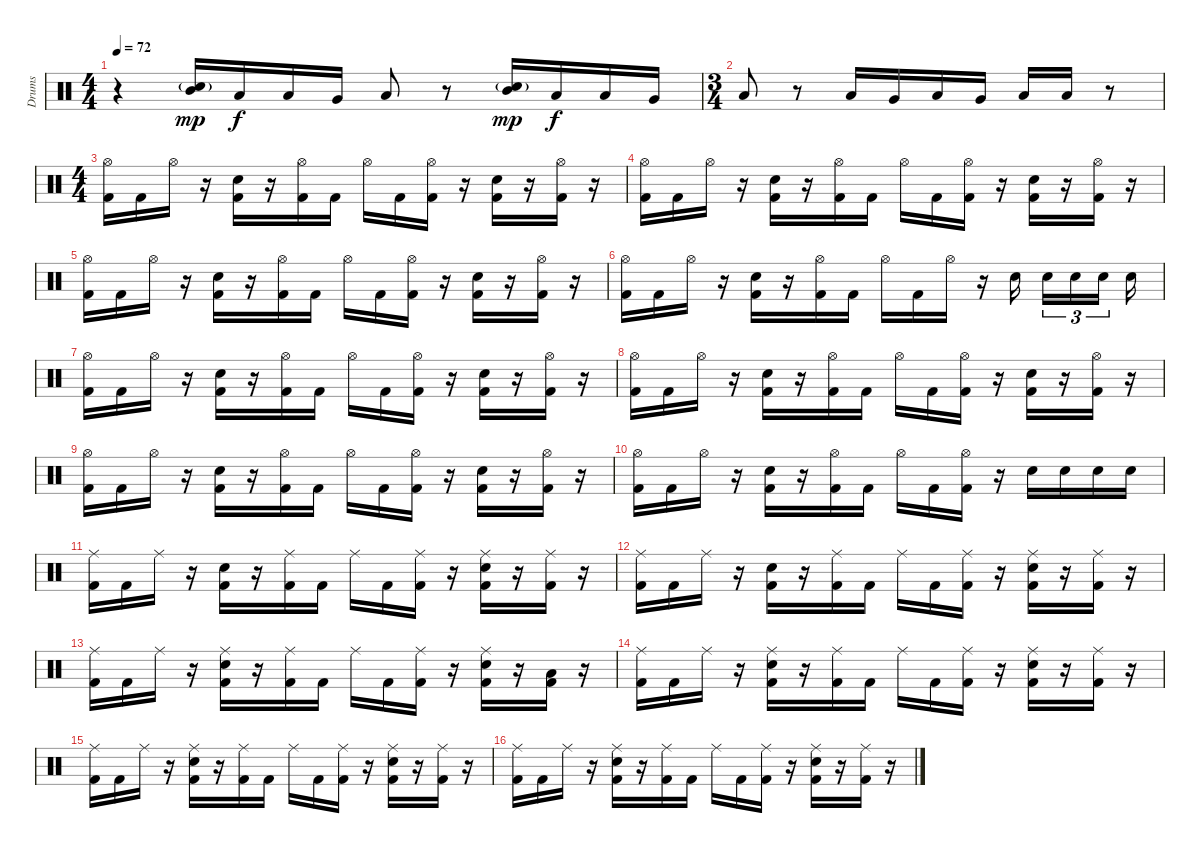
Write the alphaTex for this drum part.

\track ("Drums" "Drums") {instrument percussion}
\staff {score}
\articulation defaults
\ts (4 4)
\tempo 72
\clef neutral
\ks c
r.4{dy f} ("Snare (hit) 2"{g} "Mid Tom (hit)").16{dy mp} "Low Tom (hit)".16{dy f} "Low Tom (hit)".16 "Very Low Tom (hit)".16 "Low Floor Tom (hit)".8 r.8 ("Snare (hit) 2"{g} "Mid Tom (hit)").16{dy mp} "Low Tom (hit)".16{dy f} "Low Tom (hit)".16 "Very Low Tom (hit)".16 |
\ts (3 4)
"Low Floor Tom (hit)".8 r.8 "Low Floor Tom (hit)".16 "Very Low Tom (hit)".16 "Low Floor Tom (hit)".16 "Very Low Tom (hit)".16 "Low Floor Tom (hit)".16 "Low Floor Tom (hit)".16 r.8 |
\ts (4 4)
("Hi-Hat (open)" "Kick (hit) 2").16 "Kick (hit) 2".16 "Hi-Hat (open)".16 r.16 ("Snare (hit) 2" "Kick (hit) 2").16 r.16 ("Hi-Hat (open)" "Kick (hit) 2").16 "Kick (hit) 2".16 "Hi-Hat (open)".16 "Kick (hit) 2".16 ("Hi-Hat (open)" "Kick (hit) 2").16 r.16 ("Snare (hit) 2" "Kick (hit) 2").16 r.16 ("Hi-Hat (open)" "Kick (hit) 2").16 r.16 |
("Hi-Hat (open)" "Kick (hit) 2").16 "Kick (hit) 2".16 "Hi-Hat (open)".16 r.16 ("Snare (hit) 2" "Kick (hit) 2").16 r.16 ("Hi-Hat (open)" "Kick (hit) 2").16 "Kick (hit) 2".16 "Hi-Hat (open)".16 "Kick (hit) 2".16 ("Hi-Hat (open)" "Kick (hit) 2").16 r.16 ("Snare (hit) 2" "Kick (hit) 2").16 r.16 ("Hi-Hat (open)" "Kick (hit) 2").16 r.16 |
("Hi-Hat (open)" "Kick (hit) 2").16 "Kick (hit) 2".16 "Hi-Hat (open)".16 r.16 ("Snare (hit) 2" "Kick (hit) 2").16 r.16 ("Hi-Hat (open)" "Kick (hit) 2").16 "Kick (hit) 2".16 "Hi-Hat (open)".16 "Kick (hit) 2".16 ("Hi-Hat (open)" "Kick (hit) 2").16 r.16 ("Snare (hit) 2" "Kick (hit) 2").16 r.16 ("Hi-Hat (open)" "Kick (hit) 2").16 r.16 |
("Hi-Hat (open)" "Kick (hit) 2").16 "Kick (hit) 2".16 "Hi-Hat (open)".16 r.16 ("Snare (hit) 2" "Kick (hit) 2").16 r.16 ("Hi-Hat (open)" "Kick (hit) 2").16 "Kick (hit) 2".16 "Hi-Hat (open)".16 "Kick (hit) 2".16 "Hi-Hat (open)".16 r.16 "Snare (hit) 2".16{beam splitsecondary} "Snare (hit) 2".16{tu (3 2)} "Snare (hit) 2".16{tu (3 2)} "Snare (hit) 2".16{tu (3 2) beam splitsecondary} "Snare (hit) 2".16 |
("Hi-Hat (open)" "Kick (hit) 2").16 "Kick (hit) 2".16 "Hi-Hat (open)".16 r.16 ("Snare (hit) 2" "Kick (hit) 2").16 r.16 ("Hi-Hat (open)" "Kick (hit) 2").16 "Kick (hit) 2".16 "Hi-Hat (open)".16 "Kick (hit) 2".16 ("Hi-Hat (open)" "Kick (hit) 2").16 r.16 ("Snare (hit) 2" "Kick (hit) 2").16 r.16 ("Hi-Hat (open)" "Kick (hit) 2").16 r.16 |
("Hi-Hat (open)" "Kick (hit) 2").16 "Kick (hit) 2".16 "Hi-Hat (open)".16 r.16 ("Snare (hit) 2" "Kick (hit) 2").16 r.16 ("Hi-Hat (open)" "Kick (hit) 2").16 "Kick (hit) 2".16 "Hi-Hat (open)".16 "Kick (hit) 2".16 ("Hi-Hat (open)" "Kick (hit) 2").16 r.16 ("Snare (hit) 2" "Kick (hit) 2").16 r.16 ("Hi-Hat (open)" "Kick (hit) 2").16 r.16 |
("Hi-Hat (open)" "Kick (hit) 2").16 "Kick (hit) 2".16 "Hi-Hat (open)".16 r.16 ("Snare (hit) 2" "Kick (hit) 2").16 r.16 ("Hi-Hat (open)" "Kick (hit) 2").16 "Kick (hit) 2".16 "Hi-Hat (open)".16 "Kick (hit) 2".16 ("Hi-Hat (open)" "Kick (hit) 2").16 r.16 ("Snare (hit) 2" "Kick (hit) 2").16 r.16 ("Hi-Hat (open)" "Kick (hit) 2").16 r.16 |
("Hi-Hat (open)" "Kick (hit) 2").16 "Kick (hit) 2".16 "Hi-Hat (open)".16 r.16 ("Snare (hit) 2" "Kick (hit) 2").16 r.16 ("Hi-Hat (open)" "Kick (hit) 2").16 "Kick (hit) 2".16 "Hi-Hat (open)".16 "Kick (hit) 2".16 ("Hi-Hat (open)" "Kick (hit) 2").16 r.16 "Electric Snare (hit)".16 "Electric Snare (hit)".16 "Electric Snare (hit)".16 "Electric Snare (hit)".16 |
("Ride (middle)" "Kick (hit) 2").16 "Kick (hit) 2".16 "Ride (middle)".16 r.16 ("Snare (hit) 2" "Kick (hit) 2").16 r.16 ("Ride (middle)" "Kick (hit) 2").16 "Kick (hit) 2".16 "Ride (middle)".16 "Kick (hit) 2".16 ("Ride (middle)" "Kick (hit) 2").16 r.16 ("Ride (middle)" "Snare (hit) 2" "Kick (hit) 2").16 r.16 ("Ride (middle)" "Kick (hit) 2").16 r.16 |
("Ride (middle)" "Kick (hit) 2").16 "Kick (hit) 2".16 "Ride (middle)".16 r.16 ("Snare (hit) 2" "Kick (hit) 2").16 r.16 ("Ride (middle)" "Kick (hit) 2").16 "Kick (hit) 2".16 "Ride (middle)".16 "Kick (hit) 2".16 ("Ride (middle)" "Kick (hit) 2").16 r.16 ("Ride (middle)" "Snare (hit) 2" "Kick (hit) 2").16 r.16 ("Ride (middle)" "Kick (hit) 2").16 r.16 |
("Ride (middle)" "Kick (hit) 2").16 "Kick (hit) 2".16 "Ride (middle)".16 r.16 ("Ride (middle)" "Snare (hit) 2" "Kick (hit) 2").16 r.16 ("Ride (middle)" "Kick (hit) 2").16 "Kick (hit) 2".16 "Ride (middle)".16 "Kick (hit) 2".16 ("Ride (middle)" "Kick (hit) 2").16 r.16 ("Ride (middle)" "Snare (hit) 2" "Kick (hit) 2").16 r.16 ("Low Floor Tom (hit)" "Kick (hit) 2").16 r.16 |
("Ride (middle)" "Kick (hit) 2").16 "Kick (hit) 2".16 "Ride (middle)".16 r.16 ("Ride (middle)" "Snare (hit) 2" "Kick (hit) 2").16 r.16 ("Ride (middle)" "Kick (hit) 2").16 "Kick (hit) 2".16 "Ride (middle)".16 "Kick (hit) 2".16 ("Ride (middle)" "Kick (hit) 2").16 r.16 ("Ride (middle)" "Snare (hit) 2" "Kick (hit) 2").16 r.16 ("Ride (middle)" "Kick (hit) 2").16 r.16 |
("Ride (middle)" "Kick (hit) 2").16 "Kick (hit) 2".16 "Ride (middle)".16 r.16 ("Ride (middle)" "Snare (hit) 2" "Kick (hit) 2").16 r.16 ("Ride (middle)" "Kick (hit) 2").16 "Kick (hit) 2".16 "Ride (middle)".16 "Kick (hit) 2".16 ("Ride (middle)" "Kick (hit) 2").16 r.16 ("Ride (middle)" "Snare (hit) 2" "Kick (hit) 2").16 r.16 ("Ride (middle)" "Kick (hit) 2").16 r.16 |
("Ride (middle)" "Kick (hit) 2").16 "Kick (hit) 2".16 "Ride (middle)".16 r.16 ("Ride (middle)" "Snare (hit) 2" "Kick (hit) 2").16 r.16 ("Ride (middle)" "Kick (hit) 2").16 "Kick (hit) 2".16 "Ride (middle)".16 "Kick (hit) 2".16 ("Ride (middle)" "Kick (hit) 2").16 r.16 ("Ride (middle)" "Snare (hit) 2" "Kick (hit) 2").16 r.16 ("Ride (middle)" "Kick (hit) 2").16 r.16
